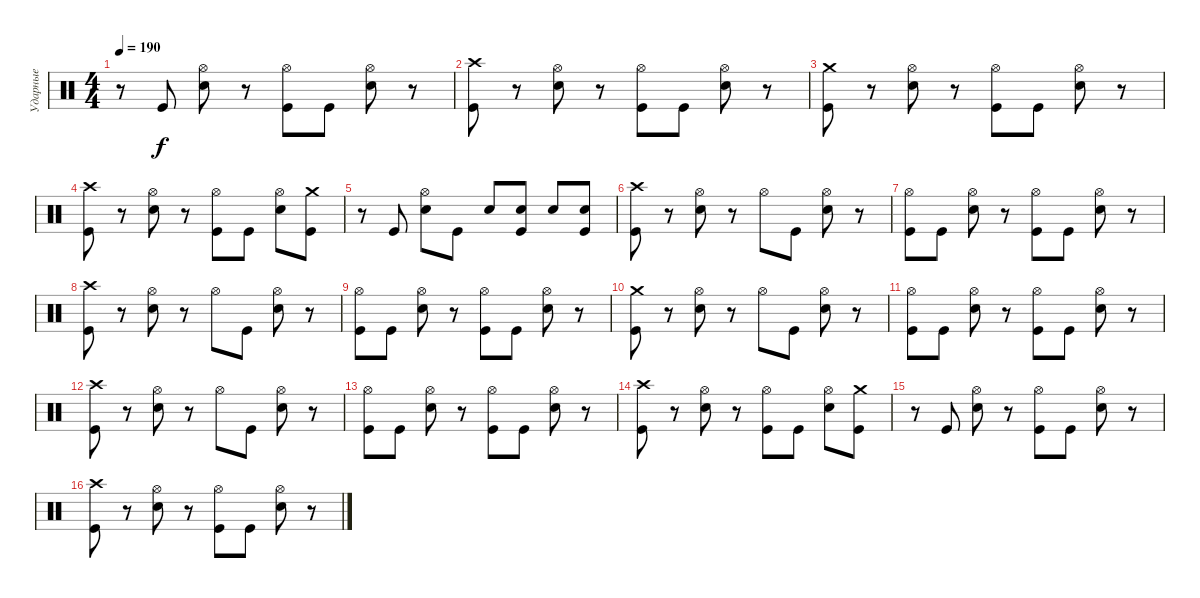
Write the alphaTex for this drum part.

\track ("Ударные" "Ударные") {instrument percussion}
\staff {score}
\articulation defaults
\ts (4 4)
\tempo 190
\clef neutral
\ks c
r.8{dy f} "Kick (hit)".8 ("Snare (hit) 2" "Hi-Hat (open)").8 r.8 ("Kick (hit)" "Hi-Hat (open)").8 "Kick (hit)".8 ("Snare (hit) 2" "Hi-Hat (open)").8 r.8 |
("Kick (hit)" "Crash high (hit)").8 r.8 ("Snare (hit) 2" "Hi-Hat (open)").8 r.8 ("Kick (hit)" "Hi-Hat (open)").8 "Kick (hit)".8 ("Snare (hit) 2" "Hi-Hat (open)").8 r.8 |
("Kick (hit)" "Crash medium (hit)").8 r.8 ("Snare (hit) 2" "Hi-Hat (open)").8 r.8 ("Kick (hit)" "Hi-Hat (open)").8 "Kick (hit)".8 ("Snare (hit) 2" "Hi-Hat (open)").8 r.8 |
("Kick (hit)" "Crash high (hit)").8 r.8 ("Snare (hit) 2" "Hi-Hat (open)").8 r.8 ("Kick (hit)" "Hi-Hat (open)").8 "Kick (hit)".8 ("Snare (hit) 2" "Hi-Hat (open)").8 ("Kick (hit)" "Crash medium (hit)").8 |
r.8 "Kick (hit)".8 ("Snare (hit) 2" "Hi-Hat (open)").8 "Kick (hit)".8 "Snare (hit) 2".8 ("Kick (hit)" "Snare (hit) 2").8 "Snare (hit) 2".8 ("Kick (hit)" "Snare (hit) 2").8 |
("Kick (hit)" "Crash high (hit)").8 r.8 ("Snare (hit) 2" "Hi-Hat (open)").8 r.8 "Hi-Hat (open)".8 "Kick (hit)".8 ("Snare (hit) 2" "Hi-Hat (open)").8 r.8 |
("Kick (hit)" "Hi-Hat (open)").8 "Kick (hit)".8 ("Snare (hit) 2" "Hi-Hat (open)").8 r.8 ("Kick (hit)" "Hi-Hat (open)").8 "Kick (hit)".8 ("Snare (hit) 2" "Hi-Hat (open)").8 r.8 |
("Kick (hit)" "Crash high (hit)").8 r.8 ("Snare (hit) 2" "Hi-Hat (open)").8 r.8 "Hi-Hat (open)".8 "Kick (hit)".8 ("Snare (hit) 2" "Hi-Hat (open)").8 r.8 |
("Kick (hit)" "Hi-Hat (open)").8 "Kick (hit)".8 ("Snare (hit) 2" "Hi-Hat (open)").8 r.8 ("Kick (hit)" "Hi-Hat (open)").8 "Kick (hit)".8 ("Snare (hit) 2" "Hi-Hat (open)").8 r.8 |
("Kick (hit)" "Crash medium (hit)").8 r.8 ("Snare (hit) 2" "Hi-Hat (open)").8 r.8 "Hi-Hat (open)".8 "Kick (hit)".8 ("Snare (hit) 2" "Hi-Hat (open)").8 r.8 |
("Kick (hit)" "Hi-Hat (open)").8 "Kick (hit)".8 ("Snare (hit) 2" "Hi-Hat (open)").8 r.8 ("Kick (hit)" "Hi-Hat (open)").8 "Kick (hit)".8 ("Snare (hit) 2" "Hi-Hat (open)").8 r.8 |
("Kick (hit)" "Crash high (hit)").8 r.8 ("Snare (hit) 2" "Hi-Hat (open)").8 r.8 "Hi-Hat (open)".8 "Kick (hit)".8 ("Snare (hit) 2" "Hi-Hat (open)").8 r.8 |
("Kick (hit)" "Hi-Hat (open)").8 "Kick (hit)".8 ("Snare (hit) 2" "Hi-Hat (open)").8 r.8 ("Kick (hit)" "Hi-Hat (open)").8 "Kick (hit)".8 ("Snare (hit) 2" "Hi-Hat (open)").8 r.8 |
("Kick (hit)" "Crash high (hit)").8 r.8 ("Snare (hit) 2" "Hi-Hat (open)").8 r.8 ("Kick (hit)" "Hi-Hat (open)").8 "Kick (hit)".8 ("Snare (hit) 2" "Hi-Hat (open)").8 ("Kick (hit)" "Crash medium (hit)").8 |
r.8 "Kick (hit)".8 ("Snare (hit) 2" "Hi-Hat (open)").8 r.8 ("Kick (hit)" "Hi-Hat (open)").8 "Kick (hit)".8 ("Snare (hit) 2" "Hi-Hat (open)").8 r.8 |
("Kick (hit)" "Crash high (hit)").8 r.8 ("Snare (hit) 2" "Hi-Hat (open)").8 r.8 ("Kick (hit)" "Hi-Hat (open)").8 "Kick (hit)".8 ("Snare (hit) 2" "Hi-Hat (open)").8 r.8
